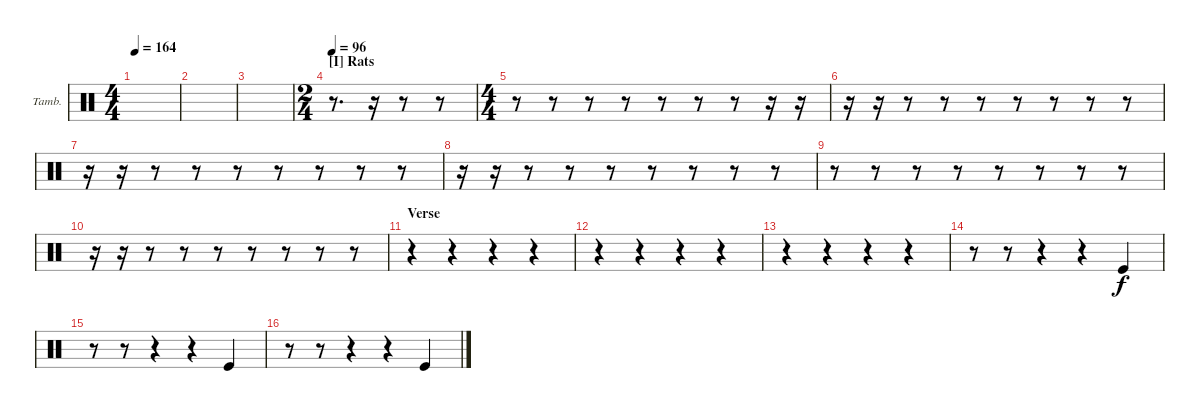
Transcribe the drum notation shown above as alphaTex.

\defaultSystemsLayout 4
\bracketExtendMode nobrackets
\firstSystemTrackNameOrientation horizontal
\otherSystemsTrackNameOrientation horizontal
\track ("Tambourine" "Tamb.") {instrument percussion}
\staff {score}
\articulation defaults
\ts (4 4)
\tempo 164
\clef neutral
\ks c
|
|
|
\ts (2 4)
\section ("I" "Rats")
\tempo 96
r.8{d} r.16 r.8 r.8 |
\ts (4 4)
r.8 r.8 r.8 r.8 r.8 r.8 r.8 r.16 r.16 |
r.16 r.16 r.8 r.8 r.8 r.8 r.8 r.8 r.8 |
r.16 r.16 r.8 r.8 r.8 r.8 r.8 r.8 r.8 |
r.16 r.16 r.8 r.8 r.8 r.8 r.8 r.8 r.8 |
r.8 r.8 r.8 r.8 r.8 r.8 r.8 r.8 |
r.16 r.16 r.8 r.8 r.8 r.8 r.8 r.8 r.8 |
\section ("" "Verse")
r.4 r.4 r.4 r.4 |
r.4 r.4 r.4 r.4 |
r.4 r.4 r.4 r.4 |
r.8 r.8 r.4 r.4 "Kick (hit)".4 |
r.8 r.8 r.4 r.4 "Kick (hit)".4 |
r.8 r.8 r.4 r.4 "Kick (hit)".4
